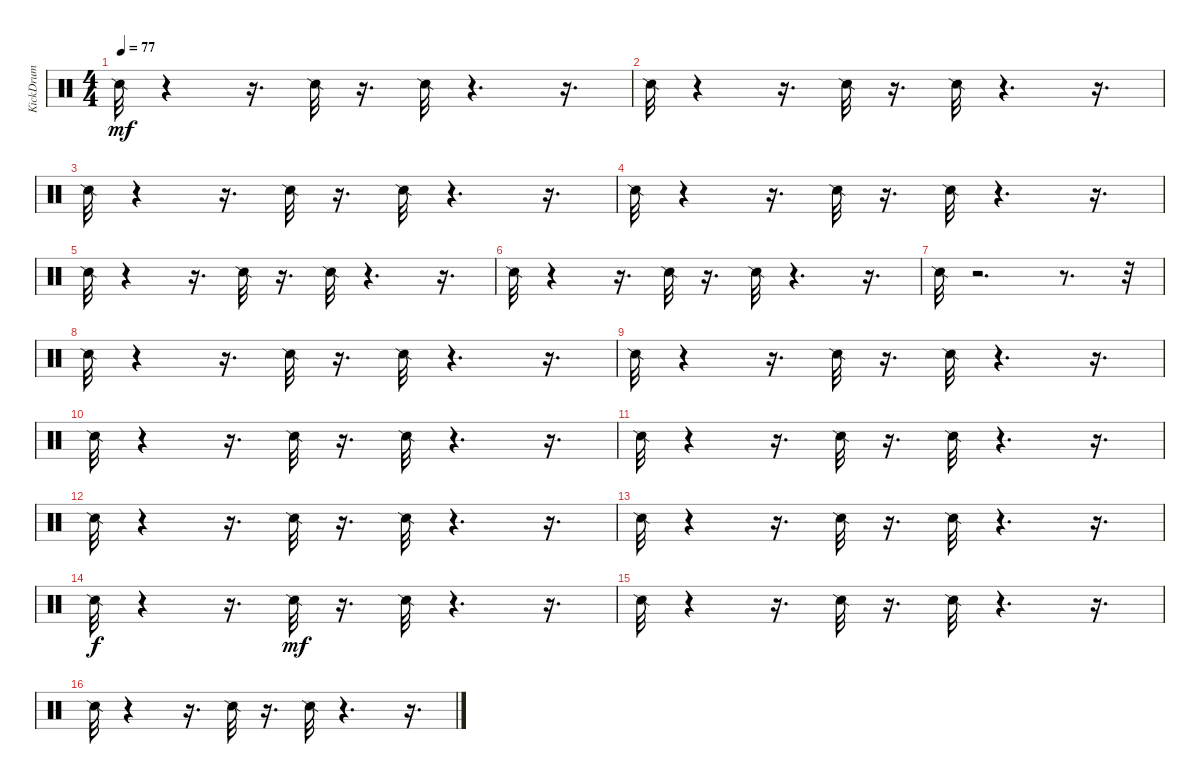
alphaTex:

\track ("KickDrum" "KickDrum") {instrument percussion}
\staff {score}
\articulation defaults
\ts (4 4)
\tempo 77
\clef neutral
\ks c "Snare (side stick) 2".32{dy mf}
r.4 r.16{d} "Snare (side stick) 2".32 r.16{d} "Snare (side stick) 2".32 r.4{d} r.16{d} |
"Snare (side stick) 2".32 r.4 r.16{d} "Snare (side stick) 2".32 r.16{d} "Snare (side stick) 2".32 r.4{d} r.16{d} |
"Snare (side stick) 2".32 r.4 r.16{d} "Snare (side stick) 2".32 r.16{d} "Snare (side stick) 2".32 r.4{d} r.16{d} |
"Snare (side stick) 2".32 r.4 r.16{d} "Snare (side stick) 2".32 r.16{d} "Snare (side stick) 2".32 r.4{d} r.16{d} |
"Snare (side stick) 2".32 r.4 r.16{d} "Snare (side stick) 2".32 r.16{d} "Snare (side stick) 2".32 r.4{d} r.16{d} |
"Snare (side stick) 2".32 r.4 r.16{d} "Snare (side stick) 2".32 r.16{d} "Snare (side stick) 2".32 r.4{d} r.16{d} |
"Snare (side stick) 2".32 r.2{d} r.8{d} r.32 |
"Snare (side stick) 2".32 r.4 r.16{d} "Snare (side stick) 2".32 r.16{d} "Snare (side stick) 2".32 r.4{d} r.16{d} |
"Snare (side stick) 2".32 r.4 r.16{d} "Snare (side stick) 2".32 r.16{d} "Snare (side stick) 2".32 r.4{d} r.16{d} |
"Snare (side stick) 2".32 r.4 r.16{d} "Snare (side stick) 2".32 r.16{d} "Snare (side stick) 2".32 r.4{d} r.16{d} |
"Snare (side stick) 2".32 r.4 r.16{d} "Snare (side stick) 2".32 r.16{d} "Snare (side stick) 2".32 r.4{d} r.16{d} |
"Snare (side stick) 2".32 r.4 r.16{d} "Snare (side stick) 2".32 r.16{d} "Snare (side stick) 2".32 r.4{d} r.16{d} |
"Snare (side stick) 2".32 r.4 r.16{d} "Snare (side stick) 2".32 r.16{d} "Snare (side stick) 2".32 r.4{d} r.16{d} |
"Snare (side stick) 2".32{dy f} r.4 r.16{d} "Snare (side stick) 2".32{dy mf} r.16{d} "Snare (side stick) 2".32 r.4{d} r.16{d} |
"Snare (side stick) 2".32 r.4 r.16{d} "Snare (side stick) 2".32 r.16{d} "Snare (side stick) 2".32 r.4{d} r.16{d} |
"Snare (side stick) 2".32 r.4 r.16{d} "Snare (side stick) 2".32 r.16{d} "Snare (side stick) 2".32 r.4{d} r.16{d}
